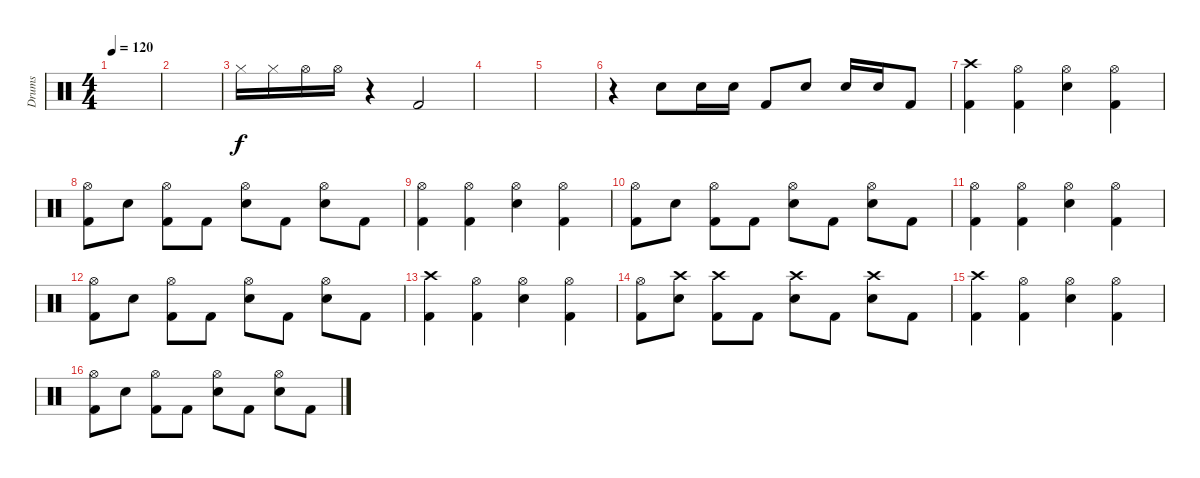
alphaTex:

\track ("Drums" "Drums") {instrument percussion}
\staff {score}
\articulation defaults
\ts (4 4)
\tempo 120
\clef neutral
\ks c
|
|
"Hi-Hat (closed)".16 "Hi-Hat (closed)".16 "Hi-Hat (open)".16 "Hi-Hat (open)".16 r.4 "Kick (hit) 2".2 |
|
|
r.4 "Snare (hit) 2".8 "Snare (hit) 2".16 "Snare (hit) 2".16 "Kick (hit) 2".8 "Snare (hit) 2".8 "Snare (hit) 2".16 "Snare (hit) 2".16 "Kick (hit) 2".8 |
("Crash high (hit)" "Kick (hit) 2").4 ("Hi-Hat (open)" "Kick (hit) 2").4 ("Hi-Hat (open)" "Snare (hit) 2").4 ("Hi-Hat (open)" "Kick (hit) 2").4 |
("Hi-Hat (open)" "Kick (hit) 2").8 "Snare (hit) 2".8 ("Hi-Hat (open)" "Kick (hit) 2").8 "Kick (hit) 2".8 ("Hi-Hat (open)" "Snare (hit) 2").8 "Kick (hit) 2".8 ("Hi-Hat (open)" "Snare (hit) 2").8 "Kick (hit) 2".8 |
("Hi-Hat (open)" "Kick (hit) 2").4 ("Hi-Hat (open)" "Kick (hit) 2").4 ("Hi-Hat (open)" "Snare (hit) 2").4 ("Hi-Hat (open)" "Kick (hit) 2").4 |
("Hi-Hat (open)" "Kick (hit) 2").8 "Snare (hit) 2".8 ("Hi-Hat (open)" "Kick (hit) 2").8 "Kick (hit) 2".8 ("Hi-Hat (open)" "Snare (hit) 2").8 "Kick (hit) 2".8 ("Hi-Hat (open)" "Snare (hit) 2").8 "Kick (hit) 2".8 |
("Hi-Hat (open)" "Kick (hit) 2").4 ("Hi-Hat (open)" "Kick (hit) 2").4 ("Hi-Hat (open)" "Snare (hit) 2").4 ("Hi-Hat (open)" "Kick (hit) 2").4 |
("Hi-Hat (open)" "Kick (hit) 2").8 "Snare (hit) 2".8 ("Hi-Hat (open)" "Kick (hit) 2").8 "Kick (hit) 2".8 ("Hi-Hat (open)" "Snare (hit) 2").8 "Kick (hit) 2".8 ("Hi-Hat (open)" "Snare (hit) 2").8 "Kick (hit) 2".8 |
("Crash high (hit)" "Kick (hit) 2").4 ("Hi-Hat (open)" "Kick (hit) 2").4 ("Hi-Hat (open)" "Snare (hit) 2").4 ("Hi-Hat (open)" "Kick (hit) 2").4 |
("Hi-Hat (open)" "Kick (hit) 2").8 ("Crash high (hit)" "Snare (hit) 2").8 ("Crash high (hit)" "Kick (hit) 2").8 "Kick (hit) 2".8 ("Crash high (hit)" "Snare (hit) 2").8 "Kick (hit) 2".8 ("Crash high (hit)" "Snare (hit) 2").8 "Kick (hit) 2".8 |
("Crash high (hit)" "Kick (hit) 2").4 ("Hi-Hat (open)" "Kick (hit) 2").4 ("Hi-Hat (open)" "Snare (hit) 2").4 ("Hi-Hat (open)" "Kick (hit) 2").4 |
("Hi-Hat (open)" "Kick (hit) 2").8 "Snare (hit) 2".8 ("Hi-Hat (open)" "Kick (hit) 2").8 "Kick (hit) 2".8 ("Hi-Hat (open)" "Snare (hit) 2").8 "Kick (hit) 2".8 ("Hi-Hat (open)" "Snare (hit) 2").8 "Kick (hit) 2".8
